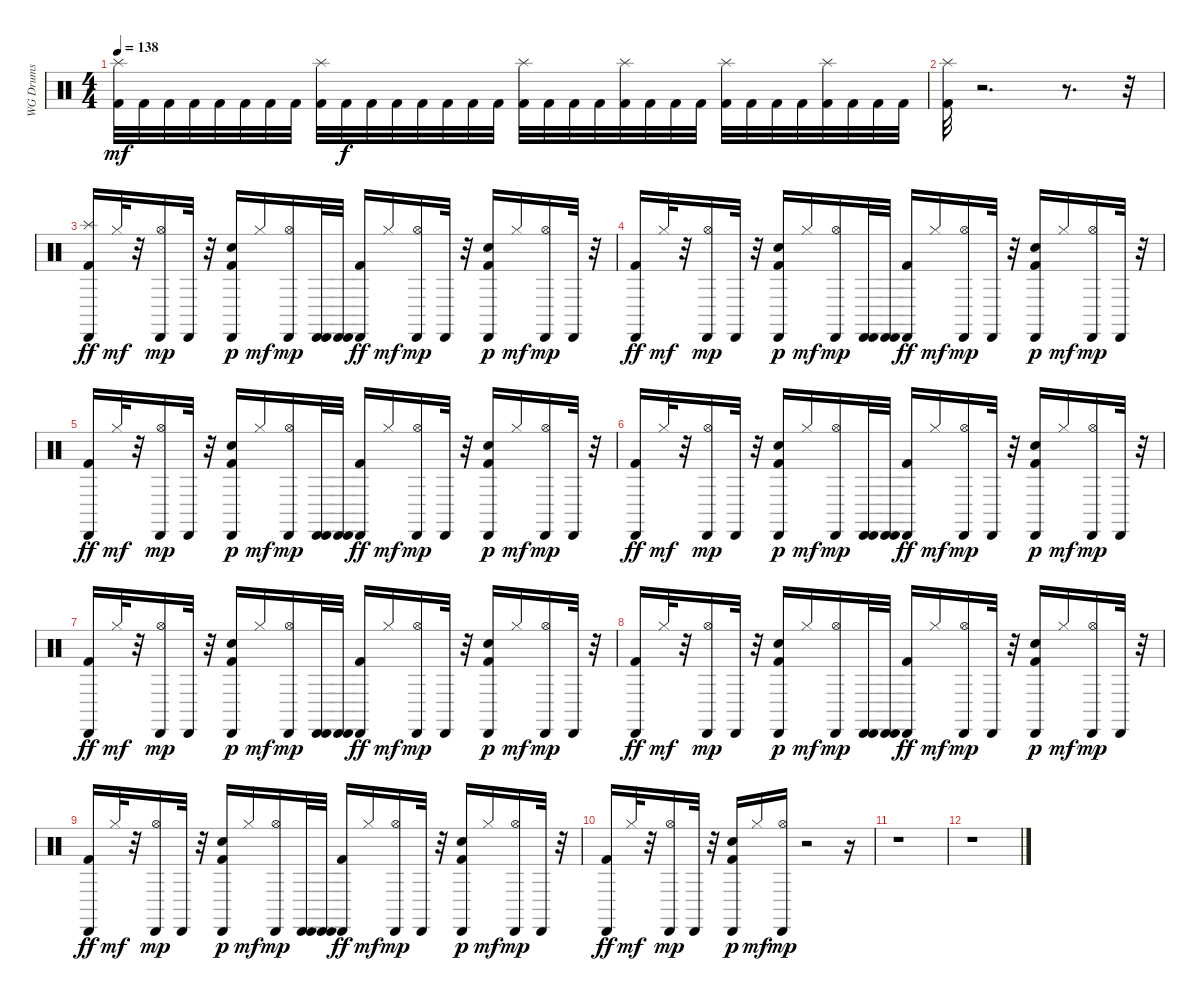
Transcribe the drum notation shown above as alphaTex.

\track ("WG Drums" "WG Drums") {instrument percussion}
\staff {score}
\articulation defaults
\ts (4 4)
\tempo 138
\clef neutral
\ks c
("Splash (hit)" "Kick (hit) 2").32{dy mf} "Kick (hit) 2".32 "Kick (hit) 2".32 "Kick (hit) 2".32 "Kick (hit) 2".32 "Kick (hit) 2".32 "Kick (hit) 2".32 "Kick (hit) 2".32 ("Splash (hit)" "Kick (hit) 2").32 "Kick (hit) 2".32{dy f} "Kick (hit) 2".32 "Kick (hit) 2".32 "Kick (hit) 2".32 "Kick (hit) 2".32 "Kick (hit) 2".32 "Kick (hit) 2".32 ("Splash (hit)" "Kick (hit) 2").32 "Kick (hit) 2".32 "Kick (hit) 2".32 "Kick (hit) 2".32 ("Splash (hit)" "Kick (hit) 2").32 "Kick (hit) 2".32 "Kick (hit) 2".32 "Kick (hit) 2".32 ("Splash (hit)" "Kick (hit) 2").32 "Kick (hit) 2".32 "Kick (hit) 2".32 "Kick (hit) 2".32 ("Splash (hit)" "Kick (hit) 2").32 "Kick (hit) 2".32 "Kick (hit) 2".32 "Kick (hit) 2".32 |
("Splash (hit)" "Kick (hit) 2").32 r.2{d} r.8{d} r.32 |
("Splash (hit)" "Cabasa (hit)" "Kick (hit) 2").16{dy ff} "Hi-Hat (closed)".32{dy mf} r.32 ("Cabasa (hit)" "Hi-Hat (open)").16{dy mp} "Cabasa (hit)".32 r.32 ("Cabasa (hit)" "Kick (hit) 2" "Hand Clap (hit)").16{dy p} "Hi-Hat (closed)".16{dy mf} ("Cabasa (hit)" "Hi-Hat (open)").16{dy mp} ("Cabasa (hit)" "Cabasa (hit)").32 ("Cabasa (hit)" "Cabasa (hit)").32 ("Cabasa (hit)" "Kick (hit) 2").16{dy ff} "Hi-Hat (closed)".16{dy mf} ("Cabasa (hit)" "Hi-Hat (open)").16{dy mp} "Cabasa (hit)".32 r.32 ("Cabasa (hit)" "Kick (hit) 2" "Hand Clap (hit)").16{dy p} "Hi-Hat (closed)".16{dy mf} ("Cabasa (hit)" "Hi-Hat (open)").16{dy mp} "Cabasa (hit)".32 r.32 |
("Cabasa (hit)" "Kick (hit) 2").16{dy ff} "Hi-Hat (closed)".32{dy mf} r.32 ("Cabasa (hit)" "Hi-Hat (open)").16{dy mp} "Cabasa (hit)".32 r.32 ("Cabasa (hit)" "Kick (hit) 2" "Hand Clap (hit)").16{dy p} "Hi-Hat (closed)".16{dy mf} ("Cabasa (hit)" "Hi-Hat (open)").16{dy mp} ("Cabasa (hit)" "Cabasa (hit)").32 ("Cabasa (hit)" "Cabasa (hit)").32 ("Cabasa (hit)" "Kick (hit) 2").16{dy ff} "Hi-Hat (closed)".16{dy mf} ("Cabasa (hit)" "Hi-Hat (open)").16{dy mp} "Cabasa (hit)".32 r.32 ("Cabasa (hit)" "Kick (hit) 2" "Hand Clap (hit)").16{dy p} "Hi-Hat (closed)".16{dy mf} ("Cabasa (hit)" "Hi-Hat (open)").16{dy mp} "Cabasa (hit)".32 r.32 |
("Cabasa (hit)" "Kick (hit) 2").16{dy ff} "Hi-Hat (closed)".32{dy mf} r.32 ("Cabasa (hit)" "Hi-Hat (open)").16{dy mp} "Cabasa (hit)".32 r.32 ("Cabasa (hit)" "Kick (hit) 2" "Hand Clap (hit)").16{dy p} "Hi-Hat (closed)".16{dy mf} ("Cabasa (hit)" "Hi-Hat (open)").16{dy mp} ("Cabasa (hit)" "Cabasa (hit)").32 ("Cabasa (hit)" "Cabasa (hit)").32 ("Cabasa (hit)" "Kick (hit) 2").16{dy ff} "Hi-Hat (closed)".16{dy mf} ("Cabasa (hit)" "Hi-Hat (open)").16{dy mp} "Cabasa (hit)".32 r.32 ("Cabasa (hit)" "Kick (hit) 2" "Hand Clap (hit)").16{dy p} "Hi-Hat (closed)".16{dy mf} ("Cabasa (hit)" "Hi-Hat (open)").16{dy mp} "Cabasa (hit)".32 r.32 |
("Cabasa (hit)" "Kick (hit) 2").16{dy ff} "Hi-Hat (closed)".32{dy mf} r.32 ("Cabasa (hit)" "Hi-Hat (open)").16{dy mp} "Cabasa (hit)".32 r.32 ("Cabasa (hit)" "Kick (hit) 2" "Hand Clap (hit)").16{dy p} "Hi-Hat (closed)".16{dy mf} ("Cabasa (hit)" "Hi-Hat (open)").16{dy mp} ("Cabasa (hit)" "Cabasa (hit)").32 ("Cabasa (hit)" "Cabasa (hit)").32 ("Cabasa (hit)" "Kick (hit) 2").16{dy ff} "Hi-Hat (closed)".16{dy mf} ("Cabasa (hit)" "Hi-Hat (open)").16{dy mp} "Cabasa (hit)".32 r.32 ("Cabasa (hit)" "Kick (hit) 2" "Hand Clap (hit)").16{dy p} "Hi-Hat (closed)".16{dy mf} ("Cabasa (hit)" "Hi-Hat (open)").16{dy mp} "Cabasa (hit)".32 r.32 |
("Cabasa (hit)" "Kick (hit) 2").16{dy ff} "Hi-Hat (closed)".32{dy mf} r.32 ("Cabasa (hit)" "Hi-Hat (open)").16{dy mp} "Cabasa (hit)".32 r.32 ("Cabasa (hit)" "Kick (hit) 2" "Hand Clap (hit)").16{dy p} "Hi-Hat (closed)".16{dy mf} ("Cabasa (hit)" "Hi-Hat (open)").16{dy mp} ("Cabasa (hit)" "Cabasa (hit)").32 ("Cabasa (hit)" "Cabasa (hit)").32 ("Cabasa (hit)" "Kick (hit) 2").16{dy ff} "Hi-Hat (closed)".16{dy mf} ("Cabasa (hit)" "Hi-Hat (open)").16{dy mp} "Cabasa (hit)".32 r.32 ("Cabasa (hit)" "Kick (hit) 2" "Hand Clap (hit)").16{dy p} "Hi-Hat (closed)".16{dy mf} ("Cabasa (hit)" "Hi-Hat (open)").16{dy mp} "Cabasa (hit)".32 r.32 |
("Cabasa (hit)" "Kick (hit) 2").16{dy ff} "Hi-Hat (closed)".32{dy mf} r.32 ("Cabasa (hit)" "Hi-Hat (open)").16{dy mp} "Cabasa (hit)".32 r.32 ("Cabasa (hit)" "Kick (hit) 2" "Hand Clap (hit)").16{dy p} "Hi-Hat (closed)".16{dy mf} ("Cabasa (hit)" "Hi-Hat (open)").16{dy mp} ("Cabasa (hit)" "Cabasa (hit)").32 ("Cabasa (hit)" "Cabasa (hit)").32 ("Cabasa (hit)" "Kick (hit) 2").16{dy ff} "Hi-Hat (closed)".16{dy mf} ("Cabasa (hit)" "Hi-Hat (open)").16{dy mp} "Cabasa (hit)".32 r.32 ("Cabasa (hit)" "Kick (hit) 2" "Hand Clap (hit)").16{dy p} "Hi-Hat (closed)".16{dy mf} ("Cabasa (hit)" "Hi-Hat (open)").16{dy mp} "Cabasa (hit)".32 r.32 |
("Cabasa (hit)" "Kick (hit) 2").16{dy ff} "Hi-Hat (closed)".32{dy mf} r.32 ("Cabasa (hit)" "Hi-Hat (open)").16{dy mp} "Cabasa (hit)".32 r.32 ("Cabasa (hit)" "Kick (hit) 2" "Hand Clap (hit)").16{dy p} "Hi-Hat (closed)".16{dy mf} ("Cabasa (hit)" "Hi-Hat (open)").16{dy mp} ("Cabasa (hit)" "Cabasa (hit)").32 ("Cabasa (hit)" "Cabasa (hit)").32 ("Cabasa (hit)" "Kick (hit) 2").16{dy ff} "Hi-Hat (closed)".16{dy mf} ("Cabasa (hit)" "Hi-Hat (open)").16{dy mp} "Cabasa (hit)".32 r.32 ("Cabasa (hit)" "Kick (hit) 2" "Hand Clap (hit)").16{dy p} "Hi-Hat (closed)".16{dy mf} ("Cabasa (hit)" "Hi-Hat (open)").16{dy mp} "Cabasa (hit)".32 r.32 |
("Cabasa (hit)" "Kick (hit) 2").16{dy ff} "Hi-Hat (closed)".32{dy mf} r.32 ("Cabasa (hit)" "Hi-Hat (open)").16{dy mp} "Cabasa (hit)".32 r.32 ("Cabasa (hit)" "Kick (hit) 2" "Hand Clap (hit)").16{dy p} "Hi-Hat (closed)".16{dy mf} ("Cabasa (hit)" "Hi-Hat (open)").16{dy mp} r.2 r.16 |
r.1 |
r.1
